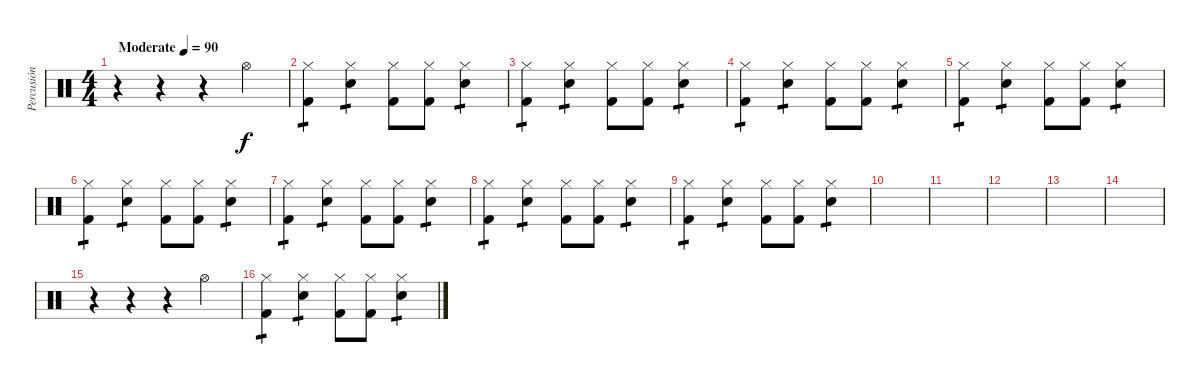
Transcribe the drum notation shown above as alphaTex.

\track ("Percusión" "Percusión") {instrument percussion}
\staff {score}
\articulation defaults
\ts (4 4)
\tempo (90 "Moderate")
\clef neutral
\ks c
r.4{dy f} r.4 r.4 "Hi-Hat (open)".4 |
("Hi-Hat (closed)" "Kick (hit) 2").4{tp 1} ("Hi-Hat (closed)" "Snare (hit) 2").4{tp 1} ("Hi-Hat (closed)" "Kick (hit) 2").8 ("Hi-Hat (closed)" "Kick (hit) 2").8 ("Hi-Hat (closed)" "Snare (hit) 2").4{tp 1} |
("Hi-Hat (closed)" "Kick (hit) 2").4{tp 1} ("Hi-Hat (closed)" "Snare (hit) 2").4{tp 1} ("Hi-Hat (closed)" "Kick (hit) 2").8 ("Hi-Hat (closed)" "Kick (hit) 2").8 ("Hi-Hat (closed)" "Snare (hit) 2").4{tp 1} |
("Hi-Hat (closed)" "Kick (hit) 2").4{tp 1} ("Hi-Hat (closed)" "Snare (hit) 2").4{tp 1} ("Hi-Hat (closed)" "Kick (hit) 2").8 ("Hi-Hat (closed)" "Kick (hit) 2").8 ("Hi-Hat (closed)" "Snare (hit) 2").4{tp 1} |
("Hi-Hat (closed)" "Kick (hit) 2").4{tp 1} ("Hi-Hat (closed)" "Snare (hit) 2").4{tp 1} ("Hi-Hat (closed)" "Kick (hit) 2").8 ("Hi-Hat (closed)" "Kick (hit) 2").8 ("Hi-Hat (closed)" "Snare (hit) 2").4{tp 1} |
("Hi-Hat (closed)" "Kick (hit) 2").4{tp 1} ("Hi-Hat (closed)" "Snare (hit) 2").4{tp 1} ("Hi-Hat (closed)" "Kick (hit) 2").8 ("Hi-Hat (closed)" "Kick (hit) 2").8 ("Hi-Hat (closed)" "Snare (hit) 2").4{tp 1} |
("Hi-Hat (closed)" "Kick (hit) 2").4{tp 1} ("Hi-Hat (closed)" "Snare (hit) 2").4{tp 1} ("Hi-Hat (closed)" "Kick (hit) 2").8 ("Hi-Hat (closed)" "Kick (hit) 2").8 ("Hi-Hat (closed)" "Snare (hit) 2").4{tp 1} |
("Hi-Hat (closed)" "Kick (hit) 2").4{tp 1} ("Hi-Hat (closed)" "Snare (hit) 2").4{tp 1} ("Hi-Hat (closed)" "Kick (hit) 2").8 ("Hi-Hat (closed)" "Kick (hit) 2").8 ("Hi-Hat (closed)" "Snare (hit) 2").4{tp 1} |
("Hi-Hat (closed)" "Kick (hit) 2").4{tp 1} ("Hi-Hat (closed)" "Snare (hit) 2").4{tp 1} ("Hi-Hat (closed)" "Kick (hit) 2").8 ("Hi-Hat (closed)" "Kick (hit) 2").8 ("Hi-Hat (closed)" "Snare (hit) 2").4{tp 1} |
|
|
|
|
|
r.4 r.4 r.4 "Hi-Hat (open)".4 |
("Hi-Hat (closed)" "Kick (hit) 2").4{tp 1} ("Hi-Hat (closed)" "Snare (hit) 2").4{tp 1} ("Hi-Hat (closed)" "Kick (hit) 2").8 ("Hi-Hat (closed)" "Kick (hit) 2").8 ("Hi-Hat (closed)" "Snare (hit) 2").4{tp 1}
